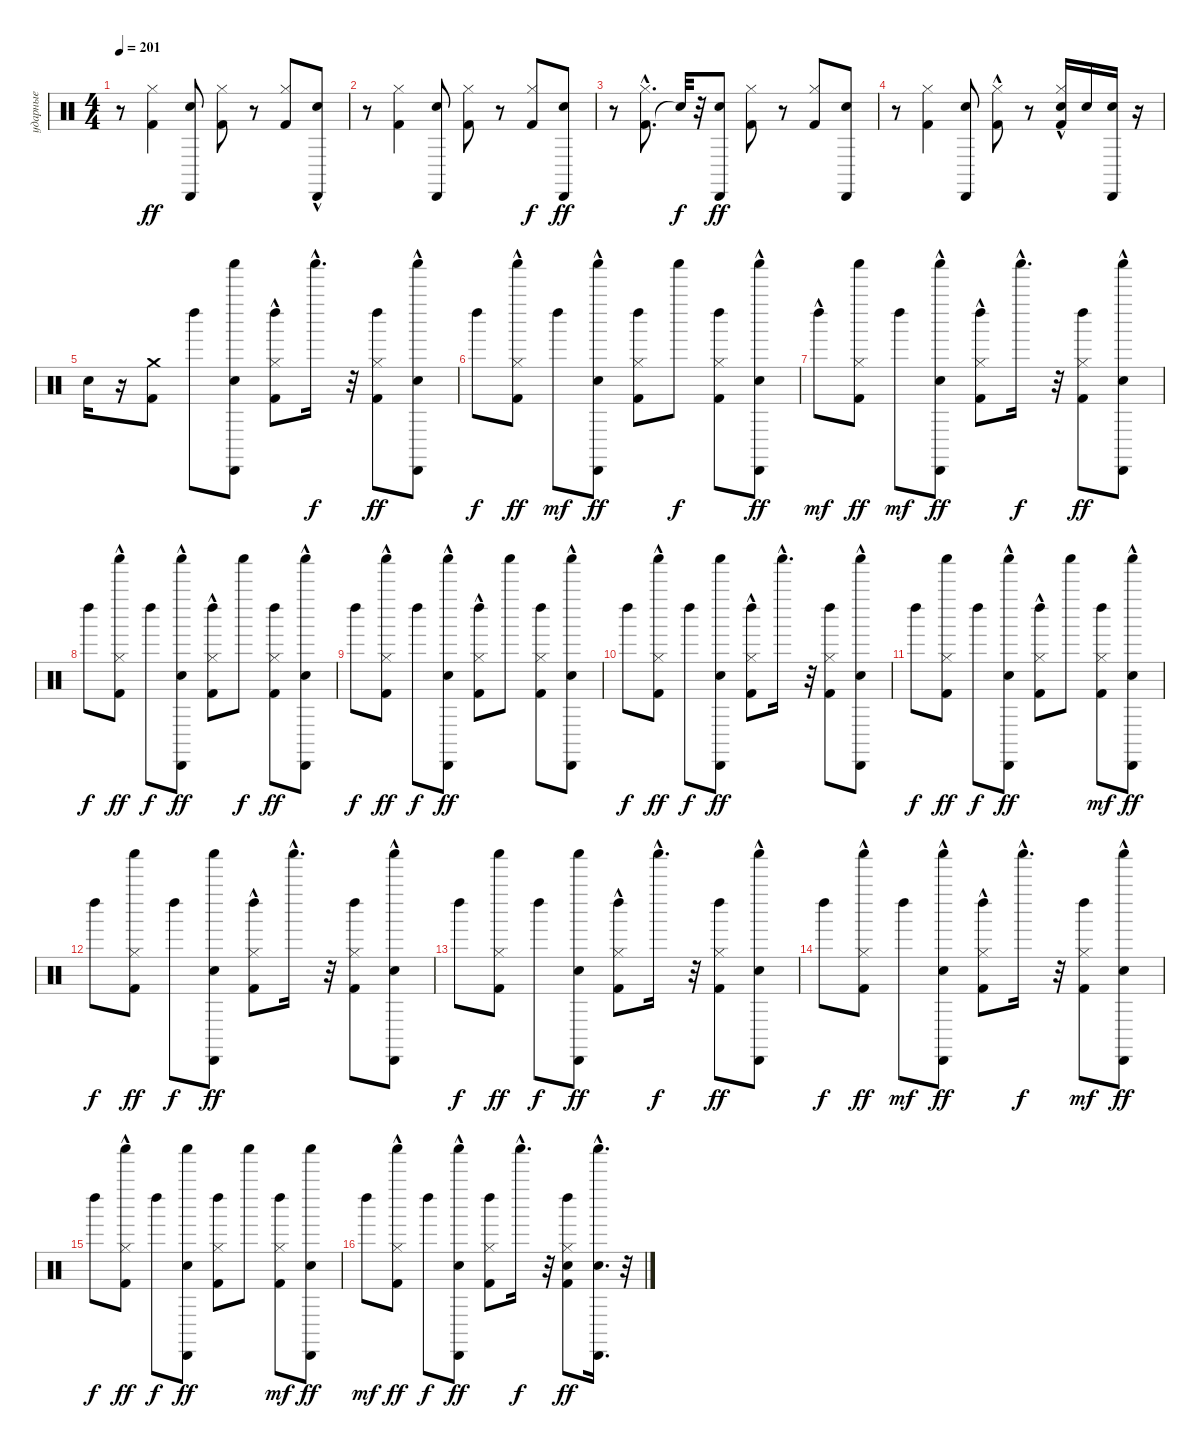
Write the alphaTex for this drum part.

\track ("ударные" "ударные") {instrument percussion}
\staff {score}
\articulation defaults
\ts (4 4)
\tempo 201
\clef neutral
\ks c
r.8{dy ff} ("Kick (hit) 2" "Hi-Hat (closed)").4 ("Electric Snare (hit)" "Cabasa (hit)").8 ("Kick (hit) 2" "Hi-Hat (closed)").8 r.8 ("Kick (hit) 2" "Hi-Hat (closed)").8 ("Electric Snare (hit)" "Cabasa (hit)"{hac}).8 |
r.8 ("Kick (hit) 2" "Hi-Hat (closed)").4 ("Electric Snare (hit)" "Cabasa (hit)").8 ("Kick (hit) 2" "Hi-Hat (closed)").8 r.8 ("Kick (hit) 2" "Hi-Hat (closed)").8{dy f} ("Electric Snare (hit)" "Cabasa (hit)").8{dy ff} |
r.8 ("Kick (hit) 2" "Hi-Hat (closed)"{hac}).8{d} "Snare (hit)"{t}.32{dy f} r.32 ("Electric Snare (hit)" "Cabasa (hit)").8{dy ff} ("Kick (hit) 2" "Hi-Hat (closed)").8 r.8 ("Kick (hit) 2" "Hi-Hat (closed)").8 ("Electric Snare (hit)" "Cabasa (hit)").8 |
r.8 ("Kick (hit) 2" "Hi-Hat (closed)").4 ("Electric Snare (hit)" "Cabasa (hit)").8 ("Kick (hit) 2" "Hi-Hat (closed)"{hac}).8 r.8 ("Kick (hit) 2" "Electric Snare (hit)" "Hi-Hat (closed)"{hac}).16 "Electric Snare (hit)".16 ("Electric Snare (hit)" "Cabasa (hit)").16 r.16 |
"Electric Snare (hit)".16 r.16 ("Kick (hit) 2" "Crash medium (hit)").8 "Left Maraca (hit)".8 ("Electric Snare (hit)" "Cabasa (hit)" "Shaker (hit)").8 ("Kick (hit) 2" "Hi-Hat (closed)"{hac} "Left Maraca (hit)").8 "Shaker (hit)"{hac}.16{d dy f} r.32 ("Kick (hit) 2" "Hi-Hat (closed)" "Left Maraca (hit)").8{dy ff} ("Electric Snare (hit)" "Cabasa (hit)" "Shaker (hit)"{hac}).8 |
"Left Maraca (hit)".8{dy f} ("Kick (hit) 2" "Hi-Hat (closed)" "Shaker (hit)"{hac}).8{dy ff} "Left Maraca (hit)".8{dy mf} ("Electric Snare (hit)" "Cabasa (hit)"{hac} "Shaker (hit)").8{dy ff} ("Kick (hit) 2" "Hi-Hat (closed)" "Left Maraca (hit)").8 "Shaker (hit)".8{dy f} ("Kick (hit) 2" "Hi-Hat (closed)" "Left Maraca (hit)").8 ("Electric Snare (hit)" "Cabasa (hit)"{hac} "Shaker (hit)").8{dy ff} |
"Left Maraca (hit)"{hac}.8{dy mf} ("Kick (hit) 2" "Hi-Hat (closed)" "Shaker (hit)").8{dy ff} "Left Maraca (hit)".8{dy mf} ("Electric Snare (hit)" "Cabasa (hit)" "Shaker (hit)"{hac}).8{dy ff} ("Kick (hit) 2" "Hi-Hat (closed)"{hac} "Left Maraca (hit)").8 "Shaker (hit)"{hac}.16{d dy f} r.32 ("Kick (hit) 2" "Hi-Hat (closed)" "Left Maraca (hit)").8{dy ff} ("Electric Snare (hit)" "Cabasa (hit)" "Shaker (hit)"{hac}).8 |
"Left Maraca (hit)".8{dy f} ("Kick (hit) 2" "Hi-Hat (closed)" "Shaker (hit)"{hac}).8{dy ff} "Left Maraca (hit)".8{dy f} ("Electric Snare (hit)" "Cabasa (hit)"{hac} "Shaker (hit)").8{dy ff} ("Kick (hit) 2" "Hi-Hat (closed)"{hac} "Left Maraca (hit)").8 "Shaker (hit)".8{dy f} ("Kick (hit) 2" "Hi-Hat (closed)" "Left Maraca (hit)").8{dy ff} ("Electric Snare (hit)" "Cabasa (hit)"{hac} "Shaker (hit)"{hac}).8 |
"Left Maraca (hit)".8{dy f} ("Kick (hit) 2" "Hi-Hat (closed)" "Shaker (hit)"{hac}).8{dy ff} "Left Maraca (hit)".8{dy f} ("Electric Snare (hit)" "Cabasa (hit)" "Shaker (hit)"{hac}).8{dy ff} ("Kick (hit) 2" "Hi-Hat (closed)"{hac} "Left Maraca (hit)").8 "Shaker (hit)".8 ("Kick (hit) 2" "Hi-Hat (closed)" "Left Maraca (hit)").8 ("Electric Snare (hit)" "Cabasa (hit)" "Shaker (hit)"{hac}).8 |
"Left Maraca (hit)".8{dy f} ("Kick (hit) 2" "Hi-Hat (closed)" "Shaker (hit)"{hac}).8{dy ff} "Left Maraca (hit)".8{dy f} ("Electric Snare (hit)" "Cabasa (hit)" "Shaker (hit)").8{dy ff} ("Kick (hit) 2" "Hi-Hat (closed)"{hac} "Left Maraca (hit)").8 "Shaker (hit)"{hac}.16{d} r.32 ("Kick (hit) 2" "Hi-Hat (closed)" "Left Maraca (hit)").8 ("Electric Snare (hit)" "Cabasa (hit)" "Shaker (hit)"{hac}).8 |
"Left Maraca (hit)".8{dy f} ("Kick (hit) 2" "Hi-Hat (closed)" "Shaker (hit)").8{dy ff} "Left Maraca (hit)".8{dy f} ("Electric Snare (hit)" "Cabasa (hit)"{hac} "Shaker (hit)").8{dy ff} ("Kick (hit) 2" "Hi-Hat (closed)"{hac} "Left Maraca (hit)").8 "Shaker (hit)".8 ("Kick (hit) 2" "Hi-Hat (closed)" "Left Maraca (hit)").8{dy mf} ("Electric Snare (hit)" "Cabasa (hit)"{hac} "Shaker (hit)").8{dy ff} |
"Left Maraca (hit)".8{dy f} ("Kick (hit) 2" "Hi-Hat (closed)" "Shaker (hit)").8{dy ff} "Left Maraca (hit)".8{dy f} ("Electric Snare (hit)" "Cabasa (hit)" "Shaker (hit)").8{dy ff} ("Kick (hit) 2" "Hi-Hat (closed)"{hac} "Left Maraca (hit)").8 "Shaker (hit)"{hac}.16{d} r.32 ("Kick (hit) 2" "Hi-Hat (closed)" "Left Maraca (hit)").8 ("Electric Snare (hit)" "Cabasa (hit)" "Shaker (hit)"{hac}).8 |
"Left Maraca (hit)".8{dy f} ("Kick (hit) 2" "Hi-Hat (closed)" "Shaker (hit)").8{dy ff} "Left Maraca (hit)".8{dy f} ("Electric Snare (hit)" "Cabasa (hit)" "Shaker (hit)").8{dy ff} ("Kick (hit) 2" "Hi-Hat (closed)"{hac} "Left Maraca (hit)").8 "Shaker (hit)"{hac}.16{d dy f} r.32 ("Kick (hit) 2" "Hi-Hat (closed)" "Left Maraca (hit)").8{dy ff} ("Electric Snare (hit)" "Cabasa (hit)" "Shaker (hit)"{hac}).8 |
"Left Maraca (hit)".8{dy f} ("Kick (hit) 2" "Hi-Hat (closed)" "Shaker (hit)"{hac}).8{dy ff} "Left Maraca (hit)".8{dy mf} ("Electric Snare (hit)" "Cabasa (hit)" "Shaker (hit)"{hac}).8{dy ff} ("Kick (hit) 2" "Hi-Hat (closed)"{hac} "Left Maraca (hit)").8 "Shaker (hit)"{hac}.16{d dy f} r.32 ("Kick (hit) 2" "Hi-Hat (closed)" "Left Maraca (hit)").8{dy mf} ("Electric Snare (hit)" "Cabasa (hit)" "Shaker (hit)"{hac}).8{dy ff} |
"Left Maraca (hit)".8{dy f} ("Kick (hit) 2" "Hi-Hat (closed)" "Shaker (hit)"{hac}).8{dy ff} "Left Maraca (hit)".8{dy f} ("Electric Snare (hit)" "Cabasa (hit)" "Shaker (hit)").8{dy ff} ("Kick (hit) 2" "Hi-Hat (closed)" "Left Maraca (hit)").8 "Shaker (hit)".8 ("Kick (hit) 2" "Hi-Hat (closed)" "Left Maraca (hit)").8{dy mf} ("Electric Snare (hit)" "Cabasa (hit)" "Shaker (hit)").8{dy ff} |
"Left Maraca (hit)".8{dy mf} ("Kick (hit) 2" "Hi-Hat (closed)" "Shaker (hit)"{hac}).8{dy ff} "Left Maraca (hit)".8{dy f} ("Electric Snare (hit)" "Cabasa (hit)" "Shaker (hit)"{hac}).8{dy ff} ("Kick (hit) 2" "Hi-Hat (closed)" "Left Maraca (hit)").8 "Shaker (hit)"{hac}.16{d dy f} r.32 ("Kick (hit) 2" "Electric Snare (hit)" "Hi-Hat (closed)" "Left Maraca (hit)").8{dy ff} ("Electric Snare (hit)" "Cabasa (hit)"{hac} "Shaker (hit)"{hac}).16{d} r.32
